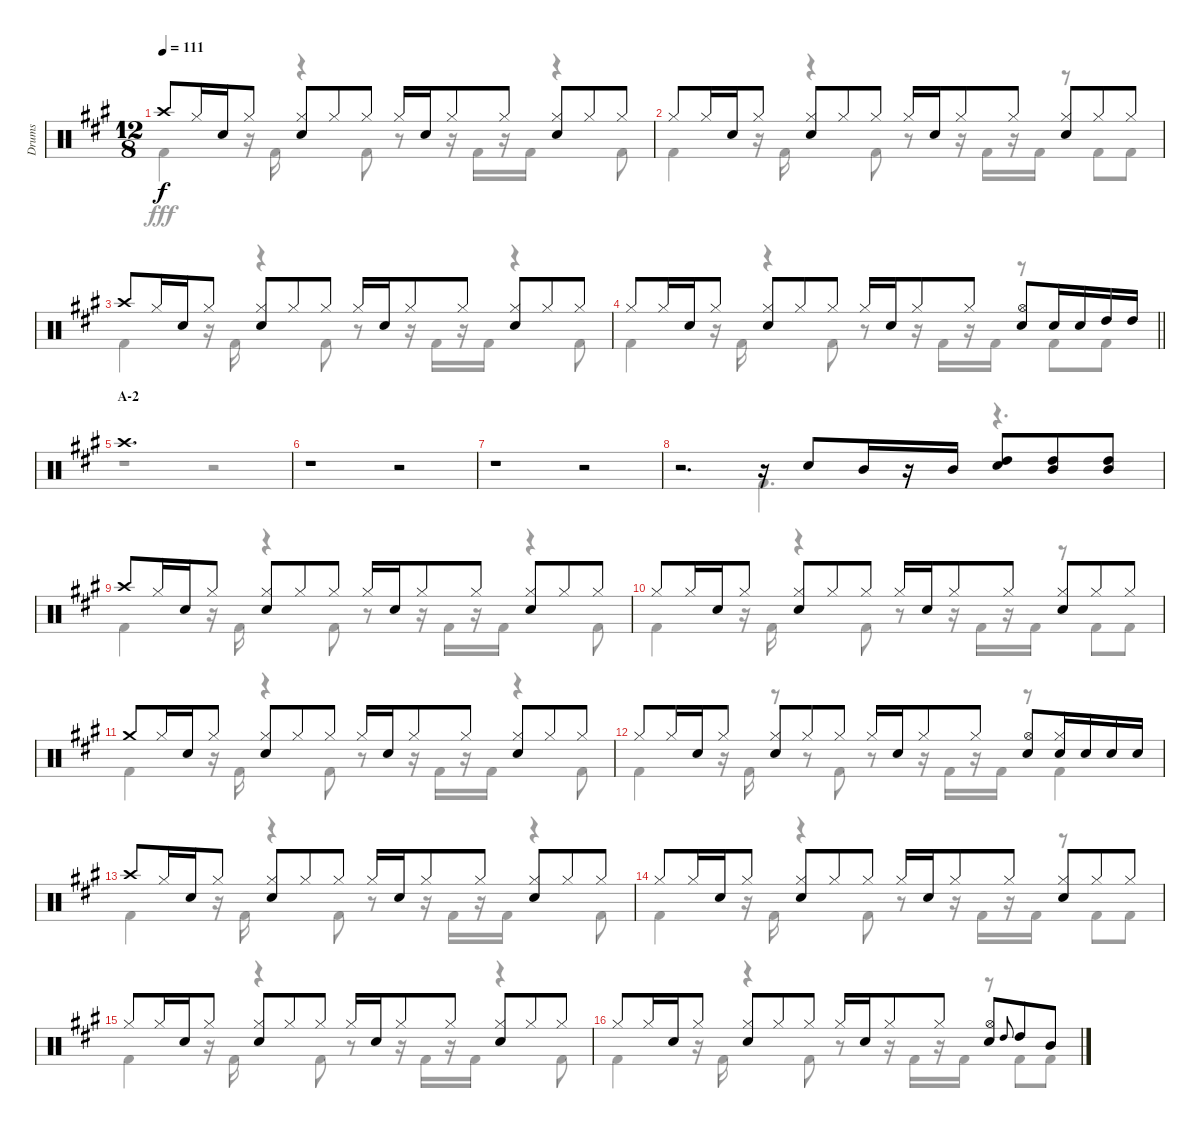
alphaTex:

\track ("Drums" "Drums") {instrument percussion}
\staff {score}
\articulation defaults
\voice
\ts (12 8)
\tempo 111
\clef neutral
\ks a "Crash high (hit)".8{dy f} "Hi-Hat (closed)".16 "Snare (hit) 2".16 "Hi-Hat (closed)".8
("Hi-Hat (closed)" "Snare (hit) 2").8 "Hi-Hat (closed)".8 "Hi-Hat (closed)".8 "Hi-Hat (closed)".16 "Snare (hit) 2".16 "Hi-Hat (closed)".8 "Hi-Hat (closed)".8 ("Hi-Hat (closed)" "Snare (hit) 2").8 "Hi-Hat (closed)".8 "Hi-Hat (closed)".8 |
"Hi-Hat (closed)".8 "Hi-Hat (closed)".16 "Snare (hit) 2".16 "Hi-Hat (closed)".8 ("Hi-Hat (closed)" "Snare (hit) 2").8 "Hi-Hat (closed)".8 "Hi-Hat (closed)".8 "Hi-Hat (closed)".16 "Snare (hit) 2".16 "Hi-Hat (closed)".8 "Hi-Hat (closed)".8 ("Hi-Hat (closed)" "Snare (hit) 2").8 "Hi-Hat (closed)".8 "Hi-Hat (closed)".8 |
"Crash high (hit)".8 "Hi-Hat (closed)".16 "Snare (hit) 2".16 "Hi-Hat (closed)".8 ("Hi-Hat (closed)" "Snare (hit) 2").8 "Hi-Hat (closed)".8 "Hi-Hat (closed)".8 "Hi-Hat (closed)".16 "Snare (hit) 2".16 "Hi-Hat (closed)".8 "Hi-Hat (closed)".8 ("Hi-Hat (closed)" "Snare (hit) 2").8 "Hi-Hat (closed)".8 "Hi-Hat (closed)".8 |
\barLineRight lightlight "Hi-Hat (closed)".8 "Hi-Hat (closed)".16 "Snare (hit) 2".16 "Hi-Hat (closed)".8
("Hi-Hat (closed)" "Snare (hit) 2").8 "Hi-Hat (closed)".8 "Hi-Hat (closed)".8 "Hi-Hat (closed)".16 "Snare (hit) 2".16 "Hi-Hat (closed)".8 "Hi-Hat (closed)".8 ("Hi-Hat (open)" "Snare (hit) 2").8 "Snare (hit) 2".16 "Snare (hit) 2".16 "High Tom (hit)".16 "High Tom (hit)".16 |
\section ("" "A-2")
"Crash high (hit)".1{d} |
r.1 r.2 |
r.1 r.2 |
r.2{d} r.16 "Snare (hit) 2".8 "Mid Tom (hit)".16 r.16 "Mid Tom (hit)".16 ("High Tom (hit)" "Snare (hit) 2").8 ("High Tom (hit)" "Mid Tom (hit)").8 ("High Tom (hit)" "Mid Tom (hit)").8 |
"Crash high (hit)".8 "Hi-Hat (closed)".16 "Snare (hit) 2".16 "Hi-Hat (closed)".8 ("Hi-Hat (closed)" "Snare (hit) 2").8 "Hi-Hat (closed)".8 "Hi-Hat (closed)".8 "Hi-Hat (closed)".16 "Snare (hit) 2".16 "Hi-Hat (closed)".8 "Hi-Hat (closed)".8 ("Hi-Hat (closed)" "Snare (hit) 2").8 "Hi-Hat (closed)".8 "Hi-Hat (closed)".8 |
"Hi-Hat (closed)".8 "Hi-Hat (closed)".16 "Snare (hit) 2".16 "Hi-Hat (closed)".8 ("Hi-Hat (closed)" "Snare (hit) 2").8 "Hi-Hat (closed)".8 "Hi-Hat (closed)".8 "Hi-Hat (closed)".16 "Snare (hit) 2".16 "Hi-Hat (closed)".8 "Hi-Hat (closed)".8 ("Hi-Hat (closed)" "Snare (hit) 2").8 "Hi-Hat (closed)".8 "Hi-Hat (closed)".8 |
"Crash medium (hit)".8 "Hi-Hat (closed)".16 "Snare (hit) 2".16 "Hi-Hat (closed)".8 ("Hi-Hat (closed)" "Snare (hit) 2").8 "Hi-Hat (closed)".8 "Hi-Hat (closed)".8 "Hi-Hat (closed)".16 "Snare (hit) 2".16 "Hi-Hat (closed)".8 "Hi-Hat (closed)".8 ("Hi-Hat (closed)" "Snare (hit) 2").8 "Hi-Hat (closed)".8 "Hi-Hat (closed)".8 |
"Hi-Hat (closed)".8 "Hi-Hat (closed)".16 "Snare (hit) 2".16 "Hi-Hat (closed)".8 ("Hi-Hat (closed)" "Snare (hit) 2").8 "Hi-Hat (closed)".8 "Hi-Hat (closed)".8 "Hi-Hat (closed)".16 "Snare (hit) 2".16 "Hi-Hat (closed)".8 "Hi-Hat (closed)".8 ("Hi-Hat (open)" "Snare (hit) 2").8 ("Hi-Hat (closed)" "Snare (hit) 2").16 "Snare (hit) 2".16 "Snare (hit) 2".16 "Snare (hit) 2".16 |
"Crash high (hit)".8 "Hi-Hat (closed)".16 "Snare (hit) 2".16 "Hi-Hat (closed)".8 ("Hi-Hat (closed)" "Snare (hit) 2").8 "Hi-Hat (closed)".8 "Hi-Hat (closed)".8 "Hi-Hat (closed)".16 "Snare (hit) 2".16 "Hi-Hat (closed)".8 "Hi-Hat (closed)".8 ("Hi-Hat (closed)" "Snare (hit) 2").8 "Hi-Hat (closed)".8 "Hi-Hat (closed)".8 |
"Hi-Hat (closed)".8 "Hi-Hat (closed)".16 "Snare (hit) 2".16 "Hi-Hat (closed)".8 ("Hi-Hat (closed)" "Snare (hit) 2").8 "Hi-Hat (closed)".8 "Hi-Hat (closed)".8 "Hi-Hat (closed)".16 "Snare (hit) 2".16 "Hi-Hat (closed)".8 "Hi-Hat (closed)".8 ("Hi-Hat (closed)" "Snare (hit) 2").8 "Hi-Hat (closed)".8 "Hi-Hat (closed)".8 |
"Hi-Hat (closed)".8 "Hi-Hat (closed)".16 "Snare (hit) 2".16 "Hi-Hat (closed)".8 ("Hi-Hat (closed)" "Snare (hit) 2").8 "Hi-Hat (closed)".8 "Hi-Hat (closed)".8 "Hi-Hat (closed)".16 "Snare (hit) 2".16 "Hi-Hat (closed)".8 "Hi-Hat (closed)".8 ("Hi-Hat (closed)" "Snare (hit) 2").8 "Hi-Hat (closed)".8 "Hi-Hat (closed)".8 |
"Hi-Hat (closed)".8 "Hi-Hat (closed)".16 "Snare (hit) 2".16 "Hi-Hat (closed)".8 ("Hi-Hat (closed)" "Snare (hit) 2").8 "Hi-Hat (closed)".8 "Hi-Hat (closed)".8 "Hi-Hat (closed)".16 "Snare (hit) 2".16 "Hi-Hat (closed)".8 "Hi-Hat (closed)".8 ("Hi-Hat (open)" "Snare (hit) 2").8 "High Tom (hit)".8{gr onbeat} "High Tom (hit)".8 "Mid Tom (hit)".8
\voice
\clef neutral
\ottava regular
\simile none
\ks a "Kick (hit) 2".4{dy fff}
r.16 "Kick (hit) 2".16 r.4 "Kick (hit) 2".8 r.8 r.16 "Kick (hit) 2".16 r.16 "Kick (hit) 2".16 r.4 "Kick (hit) 2".8 |
"Kick (hit) 2".4 r.16 "Kick (hit) 2".16 r.4 "Kick (hit) 2".8 r.8 r.16 "Kick (hit) 2".16 r.16 "Kick (hit) 2".16 r.8 "Kick (hit) 2".8 "Kick (hit) 2".8 |
"Kick (hit) 2".4 r.16 "Kick (hit) 2".16 r.4 "Kick (hit) 2".8 r.8 r.16 "Kick (hit) 2".16 r.16 "Kick (hit) 2".16 r.4 "Kick (hit) 2".8 |
\barLineRight lightlight "Kick (hit) 2".4
r.16 "Kick (hit) 2".16 r.4 "Kick (hit) 2".8 r.8 r.16 "Kick (hit) 2".16 r.16 "Kick (hit) 2".16 r.8 "Kick (hit) 2".8 "Kick (hit) 2".8 |
r.1 r.2 |
r.1 r.2 |
r.1 r.2 |
r.2{d} "Kick (hit) 2".4{d} r.4{d} |
"Kick (hit) 2".4 r.16 "Kick (hit) 2".16 r.4 "Kick (hit) 2".8 r.8 r.16 "Kick (hit) 2".16 r.16 "Kick (hit) 2".16 r.4 "Kick (hit) 2".8 |
"Kick (hit) 2".4 r.16 "Kick (hit) 2".16 r.4 "Kick (hit) 2".8 r.8 r.16 "Kick (hit) 2".16 r.16 "Kick (hit) 2".16 r.8 "Kick (hit) 2".8 "Kick (hit) 2".8 |
"Kick (hit) 2".4 r.16 "Kick (hit) 2".16 r.4 "Kick (hit) 2".8 r.8 r.16 "Kick (hit) 2".16 r.16 "Kick (hit) 2".16 r.4 "Kick (hit) 2".8 |
"Kick (hit) 2".4 r.16 "Kick (hit) 2".16 r.8 r.8 "Kick (hit) 2".8 r.8 r.16 "Kick (hit) 2".16 r.16 "Kick (hit) 2".16 r.8 "Kick (hit) 2".4 |
"Kick (hit) 2".4 r.16 "Kick (hit) 2".16 r.4 "Kick (hit) 2".8 r.8 r.16 "Kick (hit) 2".16 r.16 "Kick (hit) 2".16 r.4 "Kick (hit) 2".8 |
"Kick (hit) 2".4 r.16 "Kick (hit) 2".16 r.4 "Kick (hit) 2".8 r.8 r.16 "Kick (hit) 2".16 r.16 "Kick (hit) 2".16 r.8 "Kick (hit) 2".8 "Kick (hit) 2".8 |
"Kick (hit) 2".4 r.16 "Kick (hit) 2".16 r.4 "Kick (hit) 2".8 r.8 r.16 "Kick (hit) 2".16 r.16 "Kick (hit) 2".16 r.4 "Kick (hit) 2".8 |
"Kick (hit) 2".4 r.16 "Kick (hit) 2".16 r.4 "Kick (hit) 2".8 r.8 r.16 "Kick (hit) 2".16 r.16 "Kick (hit) 2".16 r.8 "Kick (hit) 2".8 "Kick (hit) 2".8
